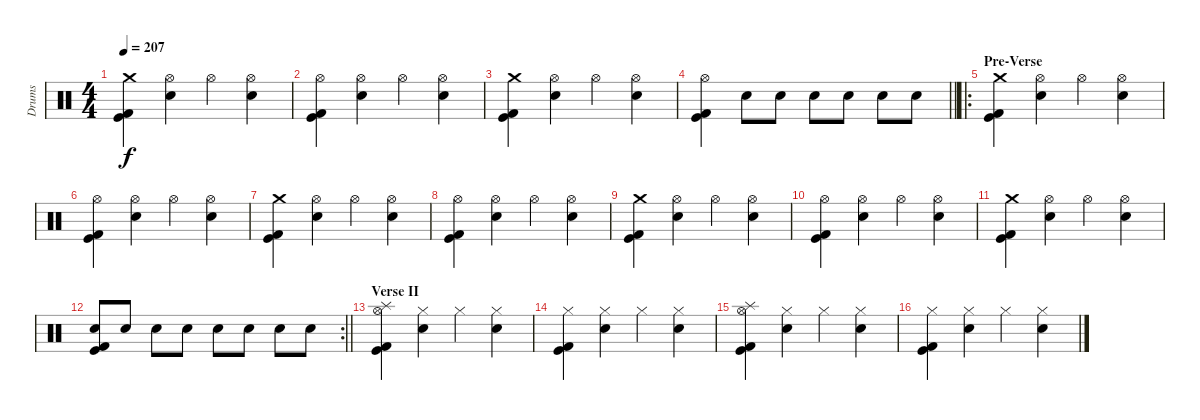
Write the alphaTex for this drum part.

\track ("Drums" "Drums") {instrument percussion}
\staff {score}
\articulation defaults
\ts (4 4)
\tempo 207
\clef neutral
\ks c
("Crash medium (hit)" "Kick (hit)" "Kick (hit) 2").4{dy f} ("Hi-Hat (open)" "Electric Snare (hit)").4 "Hi-Hat (open)".4 ("Hi-Hat (open)" "Electric Snare (hit)").4 |
("Hi-Hat (open)" "Kick (hit)" "Kick (hit) 2").4 ("Hi-Hat (open)" "Electric Snare (hit)").4 "Hi-Hat (open)".4 ("Hi-Hat (open)" "Electric Snare (hit)").4 |
("Crash medium (hit)" "Kick (hit)" "Kick (hit) 2").4 ("Hi-Hat (open)" "Electric Snare (hit)").4 "Hi-Hat (open)".4 ("Hi-Hat (open)" "Electric Snare (hit)").4 |
\barLineRight lightlight
("Hi-Hat (open)" "Kick (hit)" "Kick (hit) 2").4 "Electric Snare (hit)".8 "Electric Snare (hit)".8 "Electric Snare (hit)".8 "Electric Snare (hit)".8 "Electric Snare (hit)".8 "Electric Snare (hit)".8 |
\ro
\section ("" "Pre-Verse")
("Crash medium (hit)" "Kick (hit)" "Kick (hit) 2").4 ("Hi-Hat (open)" "Electric Snare (hit)").4 "Hi-Hat (open)".4 ("Hi-Hat (open)" "Electric Snare (hit)").4 |
("Hi-Hat (open)" "Kick (hit)" "Kick (hit) 2").4 ("Hi-Hat (open)" "Electric Snare (hit)").4 "Hi-Hat (open)".4 ("Hi-Hat (open)" "Electric Snare (hit)").4 |
("Crash medium (hit)" "Kick (hit)" "Kick (hit) 2").4 ("Hi-Hat (open)" "Electric Snare (hit)").4 "Hi-Hat (open)".4 ("Hi-Hat (open)" "Electric Snare (hit)").4 |
("Hi-Hat (open)" "Kick (hit)" "Kick (hit) 2").4 ("Hi-Hat (open)" "Electric Snare (hit)").4 "Hi-Hat (open)".4 ("Hi-Hat (open)" "Electric Snare (hit)").4 |
("Crash medium (hit)" "Kick (hit)" "Kick (hit) 2").4 ("Hi-Hat (open)" "Electric Snare (hit)").4 "Hi-Hat (open)".4 ("Hi-Hat (open)" "Electric Snare (hit)").4 |
("Hi-Hat (open)" "Kick (hit)" "Kick (hit) 2").4 ("Hi-Hat (open)" "Electric Snare (hit)").4 "Hi-Hat (open)".4 ("Hi-Hat (open)" "Electric Snare (hit)").4 |
("Crash medium (hit)" "Kick (hit)" "Kick (hit) 2").4 ("Hi-Hat (open)" "Electric Snare (hit)").4 "Hi-Hat (open)".4 ("Hi-Hat (open)" "Electric Snare (hit)").4 |
\rc 2
\barLineRight lightlight
("Electric Snare (hit)" "Kick (hit)" "Kick (hit) 2").8 "Electric Snare (hit)".8 "Electric Snare (hit)".8 "Electric Snare (hit)".8 "Electric Snare (hit)".8 "Electric Snare (hit)".8 "Electric Snare (hit)".8 "Electric Snare (hit)".8 |
\section ("" "Verse II")
("Splash (hit)" "Hi-Hat (open)" "Kick (hit)" "Kick (hit) 2").4 ("Hi-Hat (closed)" "Electric Snare (hit)").4 "Hi-Hat (closed)".4 ("Hi-Hat (closed)" "Electric Snare (hit)").4 |
("Hi-Hat (closed)" "Kick (hit)" "Kick (hit) 2").4 ("Hi-Hat (closed)" "Electric Snare (hit)").4 "Hi-Hat (closed)".4 ("Hi-Hat (closed)" "Electric Snare (hit)").4 |
("Splash (hit)" "Hi-Hat (open)" "Kick (hit)" "Kick (hit) 2").4 ("Hi-Hat (closed)" "Electric Snare (hit)").4 "Hi-Hat (closed)".4 ("Hi-Hat (closed)" "Electric Snare (hit)").4 |
("Hi-Hat (closed)" "Kick (hit)" "Kick (hit) 2").4 ("Hi-Hat (closed)" "Electric Snare (hit)").4 "Hi-Hat (closed)".4 ("Hi-Hat (closed)" "Electric Snare (hit)").4
